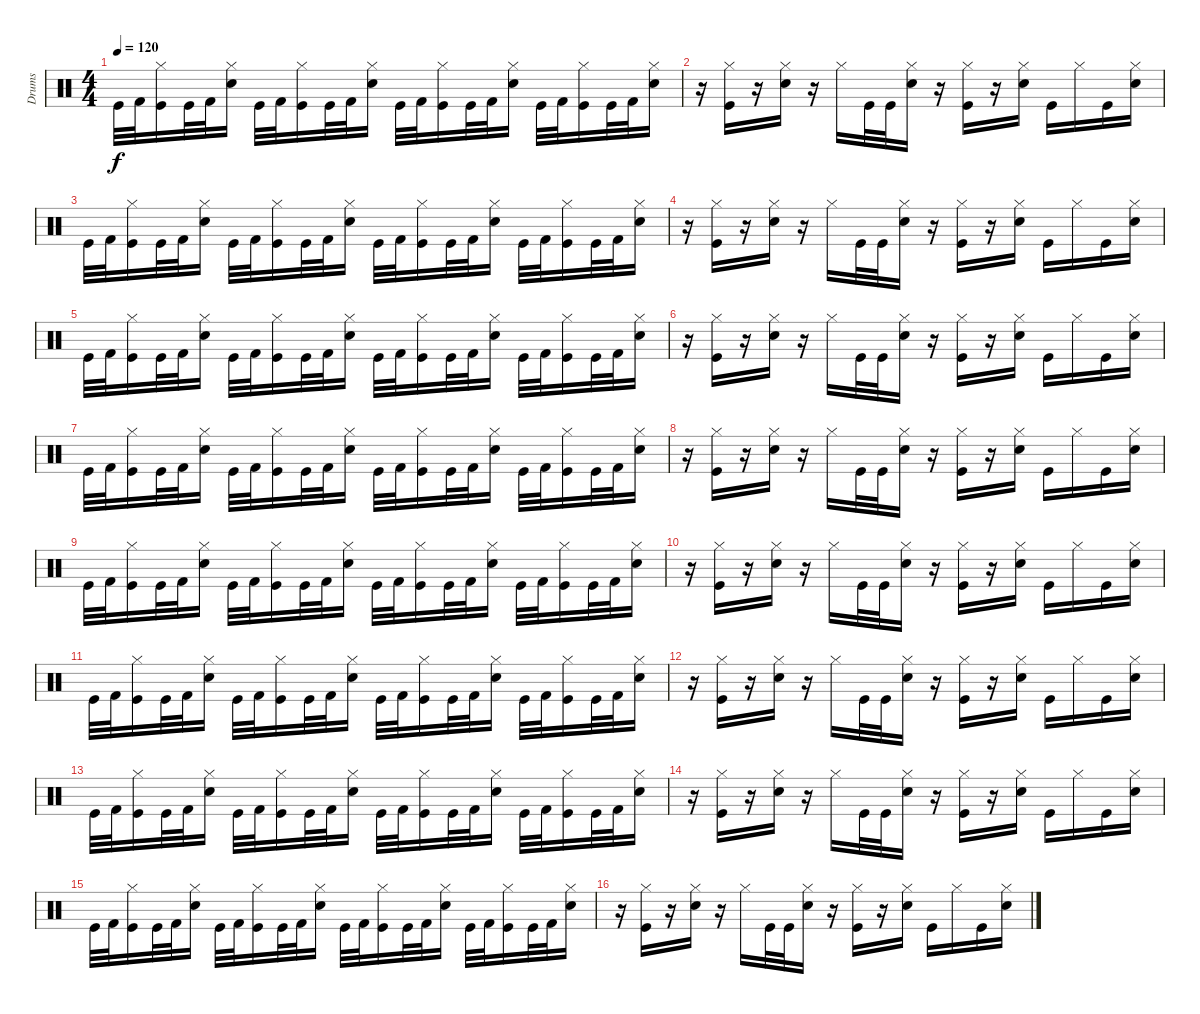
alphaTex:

\track ("Drums" "Drums") {instrument percussion}
\staff {score}
\articulation defaults
\ts (4 4)
\tempo 120
\clef neutral
\ks c "Kick (hit)".32{dy f} "Kick (hit) 2".32
("Hi-Hat (closed)" "Kick (hit)").16 "Kick (hit)".32 "Kick (hit) 2".32 ("Hi-Hat (closed)" "Snare (hit) 2").16 "Kick (hit)".32 "Kick (hit) 2".32 ("Hi-Hat (closed)" "Kick (hit)").16 "Kick (hit)".32 "Kick (hit) 2".32 ("Hi-Hat (closed)" "Snare (hit) 2").16 "Kick (hit)".32 "Kick (hit) 2".32 ("Hi-Hat (closed)" "Kick (hit)").16 "Kick (hit)".32 "Kick (hit) 2".32 ("Hi-Hat (closed)" "Snare (hit) 2").16 "Kick (hit)".32 "Kick (hit) 2".32 ("Hi-Hat (closed)" "Kick (hit)").16 "Kick (hit)".32 "Kick (hit) 2".32 ("Hi-Hat (closed)" "Snare (hit) 2").16 |
r.16 ("Hi-Hat (closed)" "Kick (hit)").16 r.16 ("Hi-Hat (closed)" "Snare (hit) 2").16 r.16 "Hi-Hat (closed)".16 "Kick (hit)".32 "Kick (hit)".32 ("Hi-Hat (closed)" "Snare (hit) 2").16 r.16 ("Hi-Hat (closed)" "Kick (hit)").16 r.16 ("Hi-Hat (closed)" "Snare (hit) 2").16 "Kick (hit)".16 "Hi-Hat (closed)".16 "Kick (hit)".16 ("Hi-Hat (closed)" "Snare (hit) 2").16 |
"Kick (hit)".32 "Kick (hit) 2".32 ("Hi-Hat (closed)" "Kick (hit)").16 "Kick (hit)".32 "Kick (hit) 2".32 ("Hi-Hat (closed)" "Snare (hit) 2").16 "Kick (hit)".32 "Kick (hit) 2".32 ("Hi-Hat (closed)" "Kick (hit)").16 "Kick (hit)".32 "Kick (hit) 2".32 ("Hi-Hat (closed)" "Snare (hit) 2").16 "Kick (hit)".32 "Kick (hit) 2".32 ("Hi-Hat (closed)" "Kick (hit)").16 "Kick (hit)".32 "Kick (hit) 2".32 ("Hi-Hat (closed)" "Snare (hit) 2").16 "Kick (hit)".32 "Kick (hit) 2".32 ("Hi-Hat (closed)" "Kick (hit)").16 "Kick (hit)".32 "Kick (hit) 2".32 ("Hi-Hat (closed)" "Snare (hit) 2").16 |
r.16 ("Hi-Hat (closed)" "Kick (hit)").16 r.16 ("Hi-Hat (closed)" "Snare (hit) 2").16 r.16 "Hi-Hat (closed)".16 "Kick (hit)".32 "Kick (hit)".32 ("Hi-Hat (closed)" "Snare (hit) 2").16 r.16 ("Hi-Hat (closed)" "Kick (hit)").16 r.16 ("Hi-Hat (closed)" "Snare (hit) 2").16 "Kick (hit)".16 "Hi-Hat (closed)".16 "Kick (hit)".16 ("Hi-Hat (closed)" "Snare (hit) 2").16 |
"Kick (hit)".32 "Kick (hit) 2".32 ("Hi-Hat (closed)" "Kick (hit)").16 "Kick (hit)".32 "Kick (hit) 2".32 ("Hi-Hat (closed)" "Snare (hit) 2").16 "Kick (hit)".32 "Kick (hit) 2".32 ("Hi-Hat (closed)" "Kick (hit)").16 "Kick (hit)".32 "Kick (hit) 2".32 ("Hi-Hat (closed)" "Snare (hit) 2").16 "Kick (hit)".32 "Kick (hit) 2".32 ("Hi-Hat (closed)" "Kick (hit)").16 "Kick (hit)".32 "Kick (hit) 2".32 ("Hi-Hat (closed)" "Snare (hit) 2").16 "Kick (hit)".32 "Kick (hit) 2".32 ("Hi-Hat (closed)" "Kick (hit)").16 "Kick (hit)".32 "Kick (hit) 2".32 ("Hi-Hat (closed)" "Snare (hit) 2").16 |
r.16 ("Hi-Hat (closed)" "Kick (hit)").16 r.16 ("Hi-Hat (closed)" "Snare (hit) 2").16 r.16 "Hi-Hat (closed)".16 "Kick (hit)".32 "Kick (hit)".32 ("Hi-Hat (closed)" "Snare (hit) 2").16 r.16 ("Hi-Hat (closed)" "Kick (hit)").16 r.16 ("Hi-Hat (closed)" "Snare (hit) 2").16 "Kick (hit)".16 "Hi-Hat (closed)".16 "Kick (hit)".16 ("Hi-Hat (closed)" "Snare (hit) 2").16 |
"Kick (hit)".32 "Kick (hit) 2".32 ("Hi-Hat (closed)" "Kick (hit)").16 "Kick (hit)".32 "Kick (hit) 2".32 ("Hi-Hat (closed)" "Snare (hit) 2").16 "Kick (hit)".32 "Kick (hit) 2".32 ("Hi-Hat (closed)" "Kick (hit)").16 "Kick (hit)".32 "Kick (hit) 2".32 ("Hi-Hat (closed)" "Snare (hit) 2").16 "Kick (hit)".32 "Kick (hit) 2".32 ("Hi-Hat (closed)" "Kick (hit)").16 "Kick (hit)".32 "Kick (hit) 2".32 ("Hi-Hat (closed)" "Snare (hit) 2").16 "Kick (hit)".32 "Kick (hit) 2".32 ("Hi-Hat (closed)" "Kick (hit)").16 "Kick (hit)".32 "Kick (hit) 2".32 ("Hi-Hat (closed)" "Snare (hit) 2").16 |
r.16 ("Hi-Hat (closed)" "Kick (hit)").16 r.16 ("Hi-Hat (closed)" "Snare (hit) 2").16 r.16 "Hi-Hat (closed)".16 "Kick (hit)".32 "Kick (hit)".32 ("Hi-Hat (closed)" "Snare (hit) 2").16 r.16 ("Hi-Hat (closed)" "Kick (hit)").16 r.16 ("Hi-Hat (closed)" "Snare (hit) 2").16 "Kick (hit)".16 "Hi-Hat (closed)".16 "Kick (hit)".16 ("Hi-Hat (closed)" "Snare (hit) 2").16 |
"Kick (hit)".32 "Kick (hit) 2".32 ("Hi-Hat (closed)" "Kick (hit)").16 "Kick (hit)".32 "Kick (hit) 2".32 ("Hi-Hat (closed)" "Snare (hit) 2").16 "Kick (hit)".32 "Kick (hit) 2".32 ("Hi-Hat (closed)" "Kick (hit)").16 "Kick (hit)".32 "Kick (hit) 2".32 ("Hi-Hat (closed)" "Snare (hit) 2").16 "Kick (hit)".32 "Kick (hit) 2".32 ("Hi-Hat (closed)" "Kick (hit)").16 "Kick (hit)".32 "Kick (hit) 2".32 ("Hi-Hat (closed)" "Snare (hit) 2").16 "Kick (hit)".32 "Kick (hit) 2".32 ("Hi-Hat (closed)" "Kick (hit)").16 "Kick (hit)".32 "Kick (hit) 2".32 ("Hi-Hat (closed)" "Snare (hit) 2").16 |
r.16 ("Hi-Hat (closed)" "Kick (hit)").16 r.16 ("Hi-Hat (closed)" "Snare (hit) 2").16 r.16 "Hi-Hat (closed)".16 "Kick (hit)".32 "Kick (hit)".32 ("Hi-Hat (closed)" "Snare (hit) 2").16 r.16 ("Hi-Hat (closed)" "Kick (hit)").16 r.16 ("Hi-Hat (closed)" "Snare (hit) 2").16 "Kick (hit)".16 "Hi-Hat (closed)".16 "Kick (hit)".16 ("Hi-Hat (closed)" "Snare (hit) 2").16 |
"Kick (hit)".32 "Kick (hit) 2".32 ("Hi-Hat (closed)" "Kick (hit)").16 "Kick (hit)".32 "Kick (hit) 2".32 ("Hi-Hat (closed)" "Snare (hit) 2").16 "Kick (hit)".32 "Kick (hit) 2".32 ("Hi-Hat (closed)" "Kick (hit)").16 "Kick (hit)".32 "Kick (hit) 2".32 ("Hi-Hat (closed)" "Snare (hit) 2").16 "Kick (hit)".32 "Kick (hit) 2".32 ("Hi-Hat (closed)" "Kick (hit)").16 "Kick (hit)".32 "Kick (hit) 2".32 ("Hi-Hat (closed)" "Snare (hit) 2").16 "Kick (hit)".32 "Kick (hit) 2".32 ("Hi-Hat (closed)" "Kick (hit)").16 "Kick (hit)".32 "Kick (hit) 2".32 ("Hi-Hat (closed)" "Snare (hit) 2").16 |
r.16 ("Hi-Hat (closed)" "Kick (hit)").16 r.16 ("Hi-Hat (closed)" "Snare (hit) 2").16 r.16 "Hi-Hat (closed)".16 "Kick (hit)".32 "Kick (hit)".32 ("Hi-Hat (closed)" "Snare (hit) 2").16 r.16 ("Hi-Hat (closed)" "Kick (hit)").16 r.16 ("Hi-Hat (closed)" "Snare (hit) 2").16 "Kick (hit)".16 "Hi-Hat (closed)".16 "Kick (hit)".16 ("Hi-Hat (closed)" "Snare (hit) 2").16 |
"Kick (hit)".32 "Kick (hit) 2".32 ("Hi-Hat (closed)" "Kick (hit)").16 "Kick (hit)".32 "Kick (hit) 2".32 ("Hi-Hat (closed)" "Snare (hit) 2").16 "Kick (hit)".32 "Kick (hit) 2".32 ("Hi-Hat (closed)" "Kick (hit)").16 "Kick (hit)".32 "Kick (hit) 2".32 ("Hi-Hat (closed)" "Snare (hit) 2").16 "Kick (hit)".32 "Kick (hit) 2".32 ("Hi-Hat (closed)" "Kick (hit)").16 "Kick (hit)".32 "Kick (hit) 2".32 ("Hi-Hat (closed)" "Snare (hit) 2").16 "Kick (hit)".32 "Kick (hit) 2".32 ("Hi-Hat (closed)" "Kick (hit)").16 "Kick (hit)".32 "Kick (hit) 2".32 ("Hi-Hat (closed)" "Snare (hit) 2").16 |
r.16 ("Hi-Hat (closed)" "Kick (hit)").16 r.16 ("Hi-Hat (closed)" "Snare (hit) 2").16 r.16 "Hi-Hat (closed)".16 "Kick (hit)".32 "Kick (hit)".32 ("Hi-Hat (closed)" "Snare (hit) 2").16 r.16 ("Hi-Hat (closed)" "Kick (hit)").16 r.16 ("Hi-Hat (closed)" "Snare (hit) 2").16 "Kick (hit)".16 "Hi-Hat (closed)".16 "Kick (hit)".16 ("Hi-Hat (closed)" "Snare (hit) 2").16 |
"Kick (hit)".32 "Kick (hit) 2".32 ("Hi-Hat (closed)" "Kick (hit)").16 "Kick (hit)".32 "Kick (hit) 2".32 ("Hi-Hat (closed)" "Snare (hit) 2").16 "Kick (hit)".32 "Kick (hit) 2".32 ("Hi-Hat (closed)" "Kick (hit)").16 "Kick (hit)".32 "Kick (hit) 2".32 ("Hi-Hat (closed)" "Snare (hit) 2").16 "Kick (hit)".32 "Kick (hit) 2".32 ("Hi-Hat (closed)" "Kick (hit)").16 "Kick (hit)".32 "Kick (hit) 2".32 ("Hi-Hat (closed)" "Snare (hit) 2").16 "Kick (hit)".32 "Kick (hit) 2".32 ("Hi-Hat (closed)" "Kick (hit)").16 "Kick (hit)".32 "Kick (hit) 2".32 ("Hi-Hat (closed)" "Snare (hit) 2").16 |
r.16 ("Hi-Hat (closed)" "Kick (hit)").16 r.16 ("Hi-Hat (closed)" "Snare (hit) 2").16 r.16 "Hi-Hat (closed)".16 "Kick (hit)".32 "Kick (hit)".32 ("Hi-Hat (closed)" "Snare (hit) 2").16 r.16 ("Hi-Hat (closed)" "Kick (hit)").16 r.16 ("Hi-Hat (closed)" "Snare (hit) 2").16 "Kick (hit)".16 "Hi-Hat (closed)".16 "Kick (hit)".16 ("Hi-Hat (closed)" "Snare (hit) 2").16
